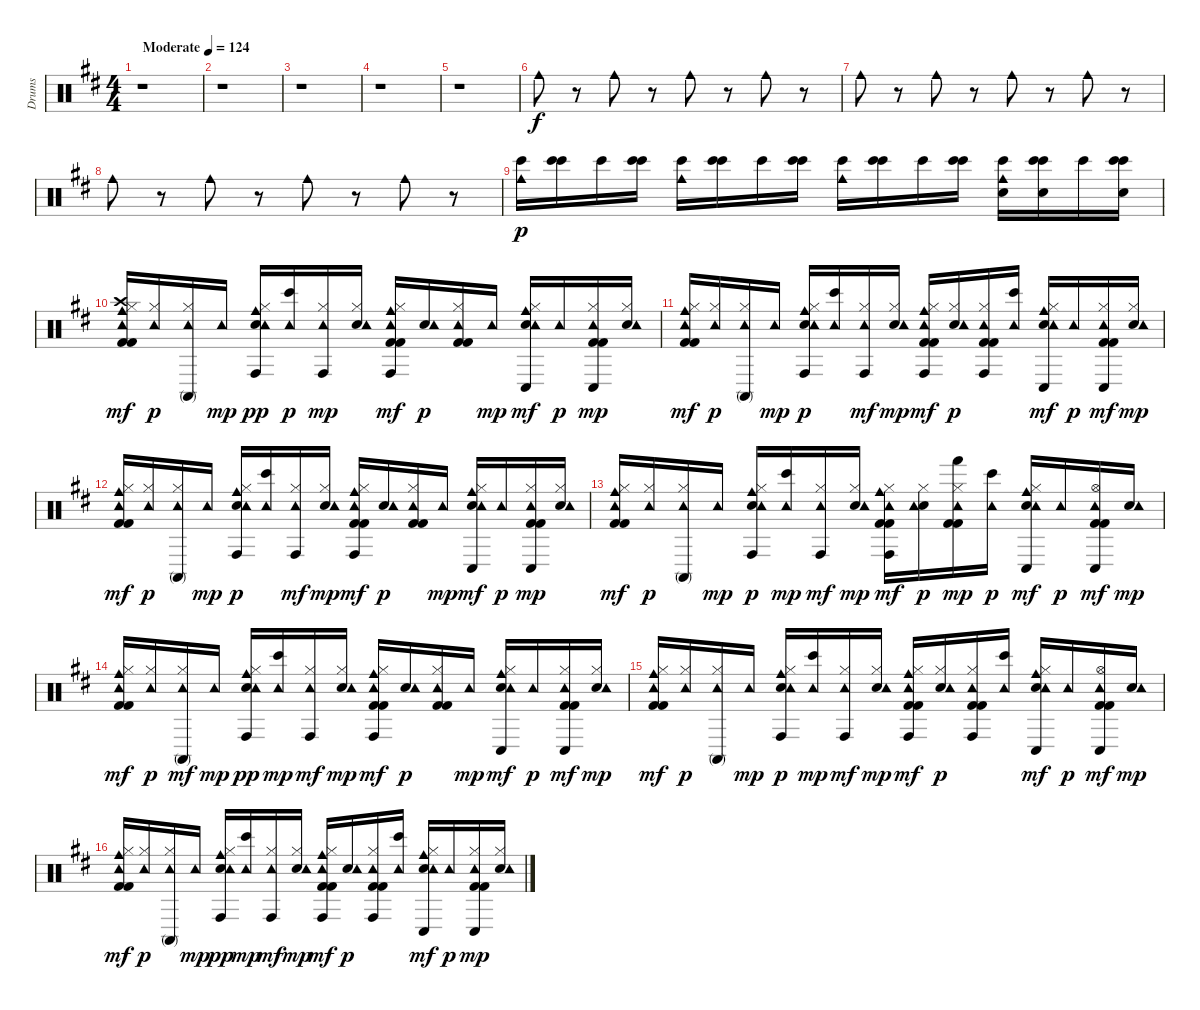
\track ("Drums" "Drums") {instrument percussion}
\staff {score}
\articulation defaults
\ts (4 4)
\tempo (124 "Moderate")
\clef neutral
\ks d
r.1{dy f} |
r.1 |
r.1 |
r.1 |
r.1 |
"Cowbell medium (hit)".8 r.8 "Cowbell medium (hit)".8 r.8 "Cowbell medium (hit)".8 r.8 "Cowbell medium (hit)".8 r.8 |
"Cowbell medium (hit)".8 r.8 "Cowbell medium (hit)".8 r.8 "Cowbell medium (hit)".8 r.8 "Cowbell medium (hit)".8 r.8 |
"Cowbell medium (hit)".8 r.8 "Cowbell medium (hit)".8 r.8 "Cowbell medium (hit)".8 r.8 "Cowbell medium (hit)".8 r.8 |
("Cowbell medium (hit)" "Bongo High (hit)").16{dy p} ("Bongo High (hit)" "Bongo High (hit)").16 "Bongo High (hit)".16 ("Bongo High (hit)" "Bongo High (hit)").16 ("Cowbell medium (hit)" "Bongo High (hit)").16 ("Bongo High (hit)" "Bongo High (hit)").16 "Bongo High (hit)".16 ("Bongo High (hit)" "Bongo High (hit)").16 ("Cowbell medium (hit)" "Bongo High (hit)").16 ("Bongo High (hit)" "Bongo High (hit)").16 "Bongo High (hit)".16 ("Bongo High (hit)" "Bongo High (hit)").16 ("Electric Snare (hit)" "Cowbell medium (hit)" "Bongo High (hit)").16 ("Electric Snare (hit)" "Bongo High (hit)" "Bongo High (hit)").16 "Bongo High (hit)".16 ("Electric Snare (hit)" "Bongo High (hit)" "Bongo High (hit)").16 |
("Kick (hit) 2" "Kick (hit) 2" "Hi-Hat (closed)" "Crash high (hit)" "Tambourine (hit)" "Cowbell medium (hit)").16{dy mf} ("Hi-Hat (closed)" "Tambourine (hit)").16{dy p} ("Hi-Hat (closed)" "Tambourine (hit)" "Conga high (mute)").16 "Tambourine (hit)".16{dy mp} ("Electric Snare (hit)" "Hi-Hat (closed)" "Tambourine (hit)" "Cowbell medium (hit)" "Conga high (hit)").16{dy pp} ("Tambourine (hit)" "Bongo High (hit)").16{dy p} ("Hi-Hat (closed)" "Tambourine (hit)" "Conga high (hit)").16{dy mp} ("Electric Snare (hit)" "Hi-Hat (closed)" "Tambourine (hit)").16 ("Kick (hit) 2" "Kick (hit) 2" "Hi-Hat (closed)" "Tambourine (hit)" "Cowbell medium (hit)" "Conga high (hit)").16{dy mf} ("Electric Snare (hit)" "Tambourine (hit)").16{dy p} ("Kick (hit) 2" "Kick (hit) 2" "Hi-Hat (closed)" "Tambourine (hit)").16 "Tambourine (hit)".16{dy mp} ("Electric Snare (hit)" "Hi-Hat (closed)" "Tambourine (hit)" "Cowbell medium (hit)" "Conga low (hit)").16{dy mf} "Tambourine (hit)".16{dy p} ("Kick (hit) 2" "Kick (hit) 2" "Hi-Hat (closed)" "Tambourine (hit)" "Conga low (hit)").16{dy mp} ("Electric Snare (hit)" "Hi-Hat (closed)" "Tambourine (hit)").16 |
("Kick (hit) 2" "Kick (hit) 2" "Hi-Hat (closed)" "Tambourine (hit)" "Cowbell medium (hit)").16{dy mf} ("Hi-Hat (closed)" "Tambourine (hit)").16{dy p} ("Hi-Hat (closed)" "Tambourine (hit)" "Conga high (mute)").16 "Tambourine (hit)".16{dy mp} ("Electric Snare (hit)" "Hi-Hat (closed)" "Tambourine (hit)" "Cowbell medium (hit)" "Conga high (hit)").16{dy p} ("Tambourine (hit)" "Bongo High (hit)").16 ("Hi-Hat (closed)" "Tambourine (hit)" "Conga high (hit)").16{dy mf} ("Electric Snare (hit)" "Hi-Hat (closed)" "Tambourine (hit)").16{dy mp} ("Kick (hit) 2" "Kick (hit) 2" "Hi-Hat (closed)" "Tambourine (hit)" "Cowbell medium (hit)" "Conga high (hit)").16{dy mf} ("Electric Snare (hit)" "Hi-Hat (closed)" "Tambourine (hit)").16{dy p} ("Kick (hit) 2" "Kick (hit) 2" "Hi-Hat (closed)" "Tambourine (hit)" "Conga high (hit)").16 ("Tambourine (hit)" "Bongo High (hit)").16 ("Electric Snare (hit)" "Hi-Hat (closed)" "Tambourine (hit)" "Cowbell medium (hit)" "Conga low (hit)").16{dy mf} "Tambourine (hit)".16{dy p} ("Kick (hit) 2" "Kick (hit) 2" "Hi-Hat (closed)" "Tambourine (hit)" "Conga low (hit)").16{dy mf} ("Electric Snare (hit)" "Hi-Hat (closed)" "Tambourine (hit)").16{dy mp} |
("Kick (hit) 2" "Kick (hit) 2" "Hi-Hat (closed)" "Tambourine (hit)" "Cowbell medium (hit)").16{dy mf} ("Hi-Hat (closed)" "Tambourine (hit)").16{dy p} ("Hi-Hat (closed)" "Tambourine (hit)" "Conga high (mute)").16 "Tambourine (hit)".16{dy mp} ("Electric Snare (hit)" "Hi-Hat (closed)" "Tambourine (hit)" "Cowbell medium (hit)" "Conga high (hit)").16{dy p} ("Tambourine (hit)" "Bongo High (hit)").16 ("Hi-Hat (closed)" "Tambourine (hit)" "Conga high (hit)").16{dy mf} ("Electric Snare (hit)" "Hi-Hat (closed)" "Tambourine (hit)").16{dy mp} ("Kick (hit) 2" "Kick (hit) 2" "Hi-Hat (closed)" "Tambourine (hit)" "Cowbell medium (hit)" "Conga high (hit)").16{dy mf} ("Electric Snare (hit)" "Tambourine (hit)").16{dy p} ("Kick (hit) 2" "Kick (hit) 2" "Hi-Hat (closed)" "Tambourine (hit)").16 "Tambourine (hit)".16{dy mp} ("Electric Snare (hit)" "Hi-Hat (closed)" "Tambourine (hit)" "Cowbell medium (hit)" "Conga low (hit)").16{dy mf} "Tambourine (hit)".16{dy p} ("Kick (hit) 2" "Kick (hit) 2" "Hi-Hat (closed)" "Tambourine (hit)" "Conga low (hit)").16{dy mp} ("Electric Snare (hit)" "Hi-Hat (closed)" "Tambourine (hit)").16 |
("Kick (hit) 2" "Kick (hit) 2" "Hi-Hat (closed)" "Tambourine (hit)" "Cowbell medium (hit)").16{dy mf} ("Hi-Hat (closed)" "Tambourine (hit)").16{dy p} ("Hi-Hat (closed)" "Tambourine (hit)" "Conga high (mute)").16 "Tambourine (hit)".16{dy mp} ("Electric Snare (hit)" "Hi-Hat (closed)" "Tambourine (hit)" "Cowbell medium (hit)" "Conga high (hit)").16{dy p} ("Tambourine (hit)" "Bongo High (hit)").16{dy mp} ("Hi-Hat (closed)" "Tambourine (hit)" "Conga high (hit)").16{dy mf} ("Electric Snare (hit)" "Hi-Hat (closed)" "Tambourine (hit)").16{dy mp} ("Kick (hit) 2" "Kick (hit) 2" "Hi-Hat (closed)" "Tambourine (hit)" "Cowbell medium (hit)" "Conga high (hit)").16{dy mf} ("Electric Snare (hit)" "Hi-Hat (closed)" "Tambourine (hit)").16{dy p} ("Kick (hit) 2" "Kick (hit) 2" "Hi-Hat (closed)" "Tambourine (hit)" "Hand (hit)").16{dy mp} ("Tambourine (hit)" "Bongo High (hit)").16{dy p} ("Electric Snare (hit)" "Hi-Hat (closed)" "Tambourine (hit)" "Cowbell medium (hit)" "Conga low (hit)").16{dy mf} "Tambourine (hit)".16{dy p} ("Kick (hit) 2" "Kick (hit) 2" "Hi-Hat (open)" "Tambourine (hit)" "Conga low (hit)").16{dy mf} ("Electric Snare (hit)" "Tambourine (hit)").16{dy mp} |
("Kick (hit) 2" "Kick (hit) 2" "Hi-Hat (closed)" "Tambourine (hit)" "Cowbell medium (hit)").16{dy mf} ("Hi-Hat (closed)" "Tambourine (hit)").16{dy p} ("Hi-Hat (closed)" "Tambourine (hit)" "Conga high (mute)").16{dy mf} "Tambourine (hit)".16{dy mp} ("Electric Snare (hit)" "Hi-Hat (closed)" "Tambourine (hit)" "Cowbell medium (hit)" "Conga high (hit)").16{dy pp} ("Tambourine (hit)" "Bongo High (hit)").16{dy mp} ("Hi-Hat (closed)" "Tambourine (hit)" "Conga high (hit)").16{dy mf} ("Electric Snare (hit)" "Hi-Hat (closed)" "Tambourine (hit)").16{dy mp} ("Kick (hit) 2" "Kick (hit) 2" "Hi-Hat (closed)" "Tambourine (hit)" "Cowbell medium (hit)" "Conga high (hit)").16{dy mf} ("Electric Snare (hit)" "Tambourine (hit)").16{dy p} ("Kick (hit) 2" "Kick (hit) 2" "Hi-Hat (closed)" "Tambourine (hit)").16 "Tambourine (hit)".16{dy mp} ("Electric Snare (hit)" "Hi-Hat (closed)" "Tambourine (hit)" "Cowbell medium (hit)" "Conga low (hit)").16{dy mf} "Tambourine (hit)".16{dy p} ("Kick (hit) 2" "Kick (hit) 2" "Hi-Hat (closed)" "Tambourine (hit)" "Conga low (hit)").16{dy mf} ("Electric Snare (hit)" "Hi-Hat (closed)" "Tambourine (hit)").16{dy mp} |
("Kick (hit) 2" "Kick (hit) 2" "Hi-Hat (closed)" "Tambourine (hit)" "Cowbell medium (hit)").16{dy mf} ("Hi-Hat (closed)" "Tambourine (hit)").16{dy p} ("Hi-Hat (closed)" "Tambourine (hit)" "Conga high (mute)").16 "Tambourine (hit)".16{dy mp} ("Electric Snare (hit)" "Hi-Hat (closed)" "Tambourine (hit)" "Cowbell medium (hit)" "Conga high (hit)").16{dy p} ("Tambourine (hit)" "Bongo High (hit)").16{dy mp} ("Hi-Hat (closed)" "Tambourine (hit)" "Conga high (hit)").16{dy mf} ("Electric Snare (hit)" "Hi-Hat (closed)" "Tambourine (hit)").16{dy mp} ("Kick (hit) 2" "Kick (hit) 2" "Hi-Hat (closed)" "Tambourine (hit)" "Cowbell medium (hit)" "Conga high (hit)").16{dy mf} ("Electric Snare (hit)" "Hi-Hat (closed)" "Tambourine (hit)").16{dy p} ("Kick (hit) 2" "Kick (hit) 2" "Hi-Hat (closed)" "Tambourine (hit)" "Conga high (hit)").16 ("Tambourine (hit)" "Bongo High (hit)").16 ("Electric Snare (hit)" "Hi-Hat (closed)" "Tambourine (hit)" "Cowbell medium (hit)" "Conga low (hit)").16{dy mf} "Tambourine (hit)".16{dy p} ("Kick (hit) 2" "Kick (hit) 2" "Hi-Hat (open)" "Tambourine (hit)" "Conga low (hit)").16{dy mf} ("Electric Snare (hit)" "Tambourine (hit)").16{dy mp} |
("Kick (hit) 2" "Kick (hit) 2" "Hi-Hat (closed)" "Tambourine (hit)" "Cowbell medium (hit)").16{dy mf} ("Hi-Hat (closed)" "Tambourine (hit)").16{dy p} ("Hi-Hat (closed)" "Tambourine (hit)" "Conga high (mute)").16 "Tambourine (hit)".16{dy mp} ("Electric Snare (hit)" "Hi-Hat (closed)" "Tambourine (hit)" "Cowbell medium (hit)" "Conga high (hit)").16{dy pp} ("Tambourine (hit)" "Bongo High (hit)").16{dy mp} ("Hi-Hat (closed)" "Tambourine (hit)" "Conga high (hit)").16{dy mf} ("Electric Snare (hit)" "Hi-Hat (closed)" "Tambourine (hit)").16{dy mp} ("Kick (hit) 2" "Kick (hit) 2" "Hi-Hat (closed)" "Tambourine (hit)" "Cowbell medium (hit)" "Conga high (hit)").16{dy mf} ("Electric Snare (hit)" "Tambourine (hit)").16{dy p} ("Kick (hit) 2" "Kick (hit) 2" "Hi-Hat (closed)" "Tambourine (hit)" "Conga high (hit)").16 ("Tambourine (hit)" "Bongo High (hit)").16 ("Electric Snare (hit)" "Hi-Hat (closed)" "Tambourine (hit)" "Cowbell medium (hit)" "Conga low (hit)").16{dy mf} "Tambourine (hit)".16{dy p} ("Kick (hit) 2" "Kick (hit) 2" "Hi-Hat (closed)" "Tambourine (hit)" "Conga low (hit)").16{dy mp} ("Electric Snare (hit)" "Hi-Hat (closed)" "Tambourine (hit)").16
